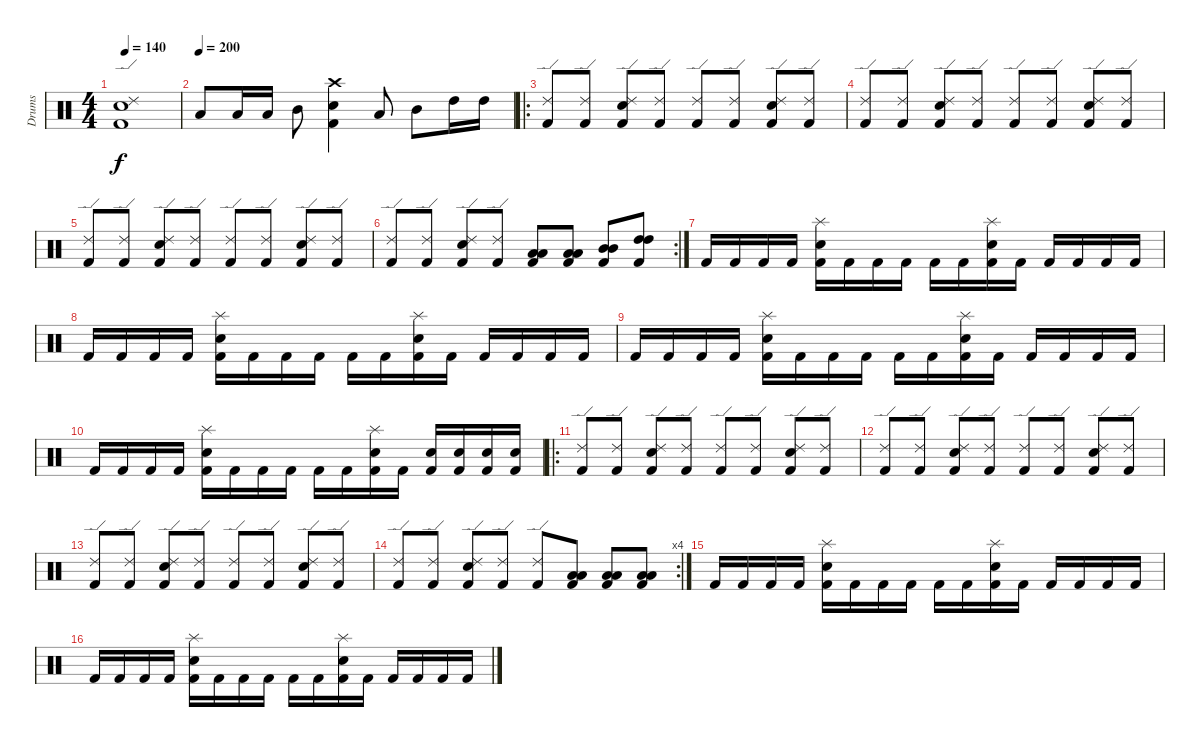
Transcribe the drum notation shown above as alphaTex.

\track ("Drums" "Drums") {instrument percussion}
\staff {score}
\articulation defaults
\ts (4 4)
\tempo 140
\clef neutral
\ks c
("Kick (hit) 2" "Snare (hit) 2" "Ride (edge) 2").1{dy f} |
\tempo (200)
"Low Tom (hit)".8 "Low Tom (hit)".16 "Low Tom (hit)".16 "Mid Tom (hit)".8 ("Kick (hit) 2" "Snare (hit) 2" "Crash high (hit)").4 "Low Tom (hit)".8 "Mid Tom (hit)".8 "High Tom (hit)".16 "High Tom (hit)".16 |
\ro
("Kick (hit) 2" "Ride (edge) 2").8 ("Kick (hit) 2" "Ride (edge) 2").8 ("Kick (hit) 2" "Snare (hit) 2" "Ride (edge) 2").8 ("Kick (hit) 2" "Ride (edge) 2").8 ("Kick (hit) 2" "Ride (edge) 2").8 ("Kick (hit) 2" "Ride (edge) 2").8 ("Kick (hit) 2" "Snare (hit) 2" "Ride (edge) 2").8 ("Kick (hit) 2" "Ride (edge) 2").8 |
("Kick (hit) 2" "Ride (edge) 2").8 ("Kick (hit) 2" "Ride (edge) 2").8 ("Kick (hit) 2" "Snare (hit) 2" "Ride (edge) 2").8 ("Kick (hit) 2" "Ride (edge) 2").8 ("Kick (hit) 2" "Ride (edge) 2").8 ("Kick (hit) 2" "Ride (edge) 2").8 ("Kick (hit) 2" "Snare (hit) 2" "Ride (edge) 2").8 ("Kick (hit) 2" "Ride (edge) 2").8 |
("Kick (hit) 2" "Ride (edge) 2").8 ("Kick (hit) 2" "Ride (edge) 2").8 ("Kick (hit) 2" "Snare (hit) 2" "Ride (edge) 2").8 ("Kick (hit) 2" "Ride (edge) 2").8 ("Kick (hit) 2" "Ride (edge) 2").8 ("Kick (hit) 2" "Ride (edge) 2").8 ("Kick (hit) 2" "Snare (hit) 2" "Ride (edge) 2").8 ("Kick (hit) 2" "Ride (edge) 2").8 |
\rc 2
("Kick (hit) 2" "Ride (edge) 2").8 ("Kick (hit) 2" "Ride (edge) 2").8 ("Kick (hit) 2" "Snare (hit) 2" "Ride (edge) 2").8 ("Kick (hit) 2" "Ride (edge) 2").8 ("Kick (hit) 2" "Low Tom (hit)" "Low Tom (hit)").8 ("Kick (hit) 2" "Low Tom (hit)" "Low Tom (hit)").8 ("Kick (hit) 2" "Mid Tom (hit)" "Mid Tom (hit)").8 ("Kick (hit) 2" "High Tom (hit)" "High Tom (hit)").8 |
"Kick (hit) 2".16 "Kick (hit) 2".16 "Kick (hit) 2".16 "Kick (hit) 2".16 ("Kick (hit) 2" "Snare (hit) 2" "Splash (hit)").16 "Kick (hit) 2".16 "Kick (hit) 2".16 "Kick (hit) 2".16 "Kick (hit) 2".16 "Kick (hit) 2".16 ("Kick (hit) 2" "Snare (hit) 2" "Splash (hit)").16 "Kick (hit) 2".16 "Kick (hit) 2".16 "Kick (hit) 2".16 "Kick (hit) 2".16 "Kick (hit) 2".16 |
"Kick (hit) 2".16 "Kick (hit) 2".16 "Kick (hit) 2".16 "Kick (hit) 2".16 ("Kick (hit) 2" "Snare (hit) 2" "Splash (hit)").16 "Kick (hit) 2".16 "Kick (hit) 2".16 "Kick (hit) 2".16 "Kick (hit) 2".16 "Kick (hit) 2".16 ("Kick (hit) 2" "Snare (hit) 2" "Splash (hit)").16 "Kick (hit) 2".16 "Kick (hit) 2".16 "Kick (hit) 2".16 "Kick (hit) 2".16 "Kick (hit) 2".16 |
"Kick (hit) 2".16 "Kick (hit) 2".16 "Kick (hit) 2".16 "Kick (hit) 2".16 ("Kick (hit) 2" "Snare (hit) 2" "Splash (hit)").16 "Kick (hit) 2".16 "Kick (hit) 2".16 "Kick (hit) 2".16 "Kick (hit) 2".16 "Kick (hit) 2".16 ("Kick (hit) 2" "Snare (hit) 2" "Splash (hit)").16 "Kick (hit) 2".16 "Kick (hit) 2".16 "Kick (hit) 2".16 "Kick (hit) 2".16 "Kick (hit) 2".16 |
"Kick (hit) 2".16 "Kick (hit) 2".16 "Kick (hit) 2".16 "Kick (hit) 2".16 ("Kick (hit) 2" "Snare (hit) 2" "Splash (hit)").16 "Kick (hit) 2".16 "Kick (hit) 2".16 "Kick (hit) 2".16 "Kick (hit) 2".16 "Kick (hit) 2".16 ("Kick (hit) 2" "Snare (hit) 2" "Splash (hit)").16 "Kick (hit) 2".16 ("Kick (hit) 2" "Snare (hit) 2").16 ("Kick (hit) 2" "Snare (hit) 2").16 ("Kick (hit) 2" "Snare (hit) 2").16 ("Kick (hit) 2" "Snare (hit) 2").16 |
\ro
("Kick (hit) 2" "Ride (edge) 2").8 ("Kick (hit) 2" "Ride (edge) 2").8 ("Kick (hit) 2" "Snare (hit) 2" "Ride (edge) 2").8 ("Kick (hit) 2" "Ride (edge) 2").8 ("Kick (hit) 2" "Ride (edge) 2").8 ("Kick (hit) 2" "Ride (edge) 2").8 ("Kick (hit) 2" "Snare (hit) 2" "Ride (edge) 2").8 ("Kick (hit) 2" "Ride (edge) 2").8 |
("Kick (hit) 2" "Ride (edge) 2").8 ("Kick (hit) 2" "Ride (edge) 2").8 ("Kick (hit) 2" "Snare (hit) 2" "Ride (edge) 2").8 ("Kick (hit) 2" "Ride (edge) 2").8 ("Kick (hit) 2" "Ride (edge) 2").8 ("Kick (hit) 2" "Ride (edge) 2").8 ("Kick (hit) 2" "Snare (hit) 2" "Ride (edge) 2").8 ("Kick (hit) 2" "Ride (edge) 2").8 |
("Kick (hit) 2" "Ride (edge) 2").8 ("Kick (hit) 2" "Ride (edge) 2").8 ("Kick (hit) 2" "Snare (hit) 2" "Ride (edge) 2").8 ("Kick (hit) 2" "Ride (edge) 2").8 ("Kick (hit) 2" "Ride (edge) 2").8 ("Kick (hit) 2" "Ride (edge) 2").8 ("Kick (hit) 2" "Snare (hit) 2" "Ride (edge) 2").8 ("Kick (hit) 2" "Ride (edge) 2").8 |
\rc 4
("Kick (hit) 2" "Ride (edge) 2").8 ("Kick (hit) 2" "Ride (edge) 2").8 ("Kick (hit) 2" "Snare (hit) 2" "Ride (edge) 2").8 ("Kick (hit) 2" "Ride (edge) 2").8 ("Kick (hit) 2" "Ride (edge) 2").8 ("Kick (hit) 2" "Low Tom (hit)" "Low Tom (hit)").8 ("Kick (hit) 2" "Low Tom (hit)" "Low Tom (hit)").8 ("Kick (hit) 2" "Low Tom (hit)" "Low Tom (hit)").8 |
"Kick (hit) 2".16 "Kick (hit) 2".16 "Kick (hit) 2".16 "Kick (hit) 2".16 ("Kick (hit) 2" "Snare (hit) 2" "Splash (hit)").16 "Kick (hit) 2".16 "Kick (hit) 2".16 "Kick (hit) 2".16 "Kick (hit) 2".16 "Kick (hit) 2".16 ("Kick (hit) 2" "Snare (hit) 2" "Splash (hit)").16 "Kick (hit) 2".16 "Kick (hit) 2".16 "Kick (hit) 2".16 "Kick (hit) 2".16 "Kick (hit) 2".16 |
"Kick (hit) 2".16 "Kick (hit) 2".16 "Kick (hit) 2".16 "Kick (hit) 2".16 ("Kick (hit) 2" "Snare (hit) 2" "Splash (hit)").16 "Kick (hit) 2".16 "Kick (hit) 2".16 "Kick (hit) 2".16 "Kick (hit) 2".16 "Kick (hit) 2".16 ("Kick (hit) 2" "Snare (hit) 2" "Splash (hit)").16 "Kick (hit) 2".16 "Kick (hit) 2".16 "Kick (hit) 2".16 "Kick (hit) 2".16 "Kick (hit) 2".16
